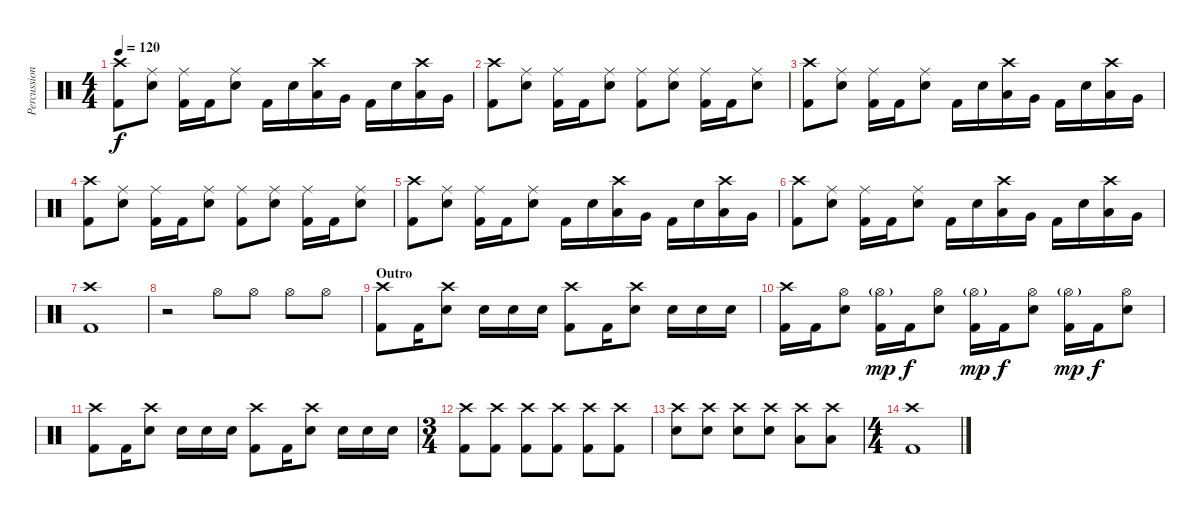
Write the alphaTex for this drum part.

\track ("Percussion" "Percussion") {instrument percussion}
\staff {score}
\articulation defaults
\ts (4 4)
\tempo 120
\clef neutral
\ks c
("Kick (hit) 2" "Crash high (hit)").8{dy f} ("Snare (hit) 2" "Ride (middle)").8 ("Kick (hit) 2" "Ride (middle)").16 "Kick (hit) 2".16 ("Snare (hit) 2" "Ride (middle)").8 "Kick (hit) 2".16 "Snare (hit) 2".16 ("Low Tom (hit)" "Crash high (hit)").16 "Very Low Tom (hit)".16 "Kick (hit) 2".16 "Snare (hit) 2".16 ("Low Tom (hit)" "Crash high (hit)").16 "Very Low Tom (hit)".16 |
("Kick (hit) 2" "Crash high (hit)").8 ("Snare (hit) 2" "Ride (middle)").8 ("Kick (hit) 2" "Ride (middle)").16 "Kick (hit) 2".16 ("Snare (hit) 2" "Ride (middle)").8 ("Kick (hit) 2" "Ride (middle)").8 ("Snare (hit) 2" "Ride (middle)").8 ("Kick (hit) 2" "Ride (middle)").16 "Kick (hit) 2".16 ("Snare (hit) 2" "Ride (middle)").8 |
("Kick (hit) 2" "Crash high (hit)").8 ("Snare (hit) 2" "Ride (middle)").8 ("Kick (hit) 2" "Ride (middle)").16 "Kick (hit) 2".16 ("Snare (hit) 2" "Ride (middle)").8 "Kick (hit) 2".16 "Snare (hit) 2".16 ("Low Tom (hit)" "Crash high (hit)").16 "Very Low Tom (hit)".16 "Kick (hit) 2".16 "Snare (hit) 2".16 ("Low Tom (hit)" "Crash high (hit)").16 "Very Low Tom (hit)".16 |
("Kick (hit) 2" "Crash high (hit)").8 ("Snare (hit) 2" "Ride (middle)").8 ("Kick (hit) 2" "Ride (middle)").16 "Kick (hit) 2".16 ("Snare (hit) 2" "Ride (middle)").8 ("Kick (hit) 2" "Ride (middle)").8 ("Snare (hit) 2" "Ride (middle)").8 ("Kick (hit) 2" "Ride (middle)").16 "Kick (hit) 2".16 ("Snare (hit) 2" "Ride (middle)").8 |
("Kick (hit) 2" "Crash high (hit)").8 ("Snare (hit) 2" "Ride (middle)").8 ("Kick (hit) 2" "Ride (middle)").16 "Kick (hit) 2".16 ("Snare (hit) 2" "Ride (middle)").8 "Kick (hit) 2".16 "Snare (hit) 2".16 ("Low Tom (hit)" "Crash high (hit)").16 "Very Low Tom (hit)".16 "Kick (hit) 2".16 "Snare (hit) 2".16 ("Low Tom (hit)" "Crash high (hit)").16 "Very Low Tom (hit)".16 |
("Kick (hit) 2" "Crash high (hit)").8 ("Snare (hit) 2" "Ride (middle)").8 ("Kick (hit) 2" "Ride (middle)").16 "Kick (hit) 2".16 ("Snare (hit) 2" "Ride (middle)").8 "Kick (hit) 2".16 "Snare (hit) 2".16 ("Low Tom (hit)" "Crash high (hit)").16 "Very Low Tom (hit)".16 "Kick (hit) 2".16 "Snare (hit) 2".16 ("Low Tom (hit)" "Crash high (hit)").16 "Very Low Tom (hit)".16 |
("Kick (hit) 2" "Crash high (hit)").1 |
r.2 "Hi-Hat (open)".8 "Hi-Hat (open)".8 "Hi-Hat (open)".8 "Hi-Hat (open)".8 |
\section ("" "Outro")
("Kick (hit) 2" "Crash high (hit)").8 "Kick (hit) 2".16 ("Snare (hit) 2" "Crash high (hit)").8 "Snare (hit) 2".16 "Snare (hit) 2".16 "Snare (hit) 2".16 ("Kick (hit) 2" "Crash high (hit)").8 "Kick (hit) 2".16 ("Snare (hit) 2" "Crash high (hit)").8 "Snare (hit) 2".16 "Snare (hit) 2".16 "Snare (hit) 2".16 |
("Kick (hit) 2" "Crash high (hit)").16 "Kick (hit) 2".16 ("Snare (hit) 2" "Hi-Hat (open)").8 ("Kick (hit) 2" "Hi-Hat (open)"{g}).16{dy mp} "Kick (hit) 2".16{dy f} ("Snare (hit) 2" "Hi-Hat (open)").8 ("Kick (hit) 2" "Hi-Hat (open)"{g}).16{dy mp} "Kick (hit) 2".16{dy f} ("Snare (hit) 2" "Hi-Hat (open)").8 ("Kick (hit) 2" "Hi-Hat (open)"{g}).16{dy mp} "Kick (hit) 2".16{dy f} ("Snare (hit) 2" "Hi-Hat (open)").8 |
("Kick (hit) 2" "Crash high (hit)").8 "Kick (hit) 2".16 ("Snare (hit) 2" "Crash high (hit)").8 "Snare (hit) 2".16 "Snare (hit) 2".16 "Snare (hit) 2".16 ("Kick (hit) 2" "Crash high (hit)").8 "Kick (hit) 2".16 ("Snare (hit) 2" "Crash high (hit)").8 "Snare (hit) 2".16 "Snare (hit) 2".16 "Snare (hit) 2".16 |
\ts (3 4)
("Kick (hit) 2" "Crash high (hit)").8 ("Kick (hit) 2" "Crash high (hit)").8 ("Kick (hit) 2" "Crash high (hit)").8 ("Kick (hit) 2" "Crash high (hit)").8 ("Kick (hit) 2" "Crash high (hit)").8 ("Kick (hit) 2" "Crash high (hit)").8 |
("Snare (hit) 2" "Crash high (hit)").8 ("Snare (hit) 2" "Crash high (hit)").8 ("Snare (hit) 2" "Crash high (hit)").8 ("Snare (hit) 2" "Crash high (hit)").8 ("Low Tom (hit)" "Crash high (hit)").8 ("Low Tom (hit)" "Crash high (hit)").8 |
\ts (4 4)
("Kick (hit) 2" "Crash high (hit)").1
